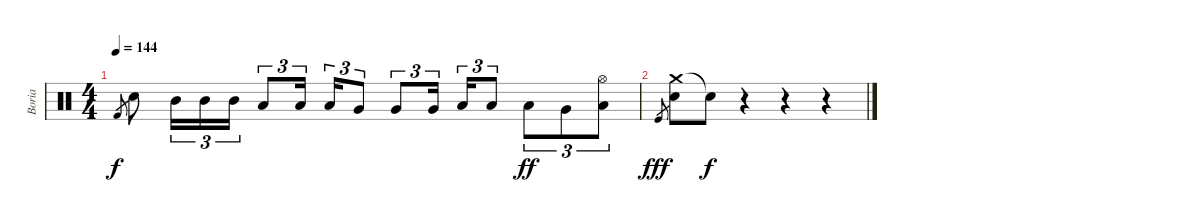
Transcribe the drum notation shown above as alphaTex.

\track ("Boria" "Boria") {instrument percussion}
\staff {score}
\articulation defaults
\ts (4 4)
\tempo 144
\clef neutral
\ks c "Kick (hit) 2".8{gr dy f} "Snare (hit) 2".8 "Mid Tom (hit)".16{tu (3 2)} "Mid Tom (hit)".16{tu (3 2)} "Mid Tom (hit)".16{tu (3 2)} "Low Tom (hit)".8{tu (3 2)} "Low Tom (hit)".16{tu (3 2)} "Low Tom (hit)".16{tu (3 2)} "Very Low Tom (hit)".8{tu (3 2)} "Very Low Tom (hit)".8{tu (3 2)} "Very Low Tom (hit)".16{tu (3 2)} "Low Floor Tom (hit)".16{tu (3 2)} "Low Floor Tom (hit)".8{tu (3 2)} "Low Floor Tom (hit)".8{tu (3 2) dy ff} "Very Low Tom (hit)".8{tu (3 2)}
("Hi-Hat (open)" "Low Tom (hit)").8{tu (3 2)} |
"Kick (hit)".8{gr dy fff} ("Crash medium (hit)" "Electric Snare (hit)").8 "Snare (hit)"{t}.8{dy f} r.4 r.4 r.4
